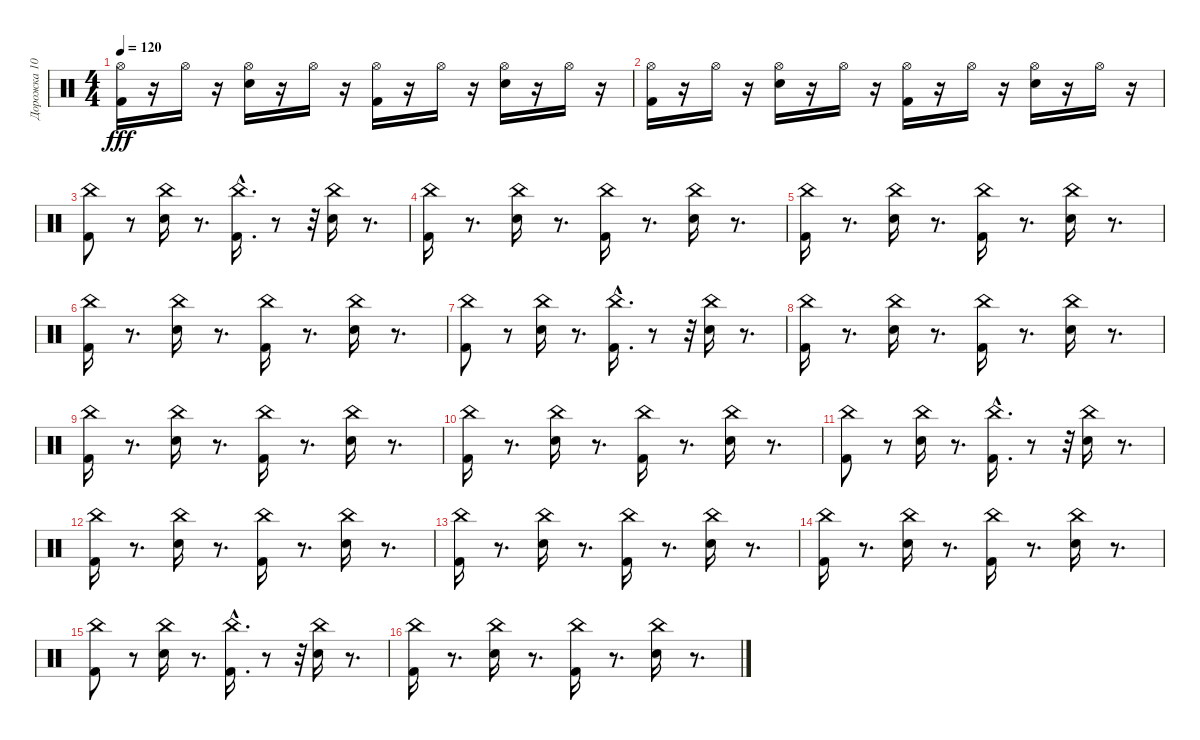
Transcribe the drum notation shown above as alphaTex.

\track ("Дорожка 10" "Дорожка 10") {instrument percussion}
\staff {score}
\articulation defaults
\ts (4 4)
\tempo 120
\clef neutral
\ks c
("Hi-Hat (open)" "Kick (hit) 2").16{dy fff} r.16 "Hi-Hat (open)".16 r.16 ("Hi-Hat (open)" "Snare (hit) 2").16 r.16 "Hi-Hat (open)".16 r.16 ("Hi-Hat (open)" "Kick (hit) 2").16 r.16 "Hi-Hat (open)".16 r.16 ("Snare (hit) 2" "Hi-Hat (open)").16 r.16 "Hi-Hat (open)".16 r.16 |
("Hi-Hat (open)" "Kick (hit) 2").16 r.16 "Hi-Hat (open)".16 r.16 ("Hi-Hat (open)" "Snare (hit) 2").16 r.16 "Hi-Hat (open)".16 r.16 ("Hi-Hat (open)" "Kick (hit) 2").16 r.16 "Hi-Hat (open)".16 r.16 ("Hi-Hat (open)" "Snare (hit) 2").16 r.16 "Hi-Hat (open)".16 r.16 |
("China (hit)" "Kick (hit) 2").8 r.8 ("China (hit)" "Snare (hit) 2").16 r.8{d} ("China (hit)" "Kick (hit) 2"{hac}).16{d} r.8 r.32 ("China (hit)" "Snare (hit) 2").16 r.8{d} |
("China (hit)" "Kick (hit) 2").16 r.8{d} ("China (hit)" "Snare (hit) 2").16 r.8{d} ("China (hit)" "Kick (hit) 2").16 r.8{d} ("China (hit)" "Snare (hit) 2").16 r.8{d} |
("China (hit)" "Kick (hit) 2").16 r.8{d} ("China (hit)" "Snare (hit) 2").16 r.8{d} ("China (hit)" "Kick (hit) 2").16 r.8{d} ("China (hit)" "Snare (hit) 2").16 r.8{d} |
("China (hit)" "Kick (hit) 2").16 r.8{d} ("China (hit)" "Snare (hit) 2").16 r.8{d} ("Kick (hit) 2" "China (hit)").16 r.8{d} ("China (hit)" "Snare (hit) 2").16 r.8{d} |
("China (hit)" "Kick (hit) 2").8 r.8 ("China (hit)" "Snare (hit) 2").16 r.8{d} ("China (hit)" "Kick (hit) 2"{hac}).16{d} r.8 r.32 ("China (hit)" "Snare (hit) 2").16 r.8{d} |
("China (hit)" "Kick (hit) 2").16 r.8{d} ("China (hit)" "Snare (hit) 2").16 r.8{d} ("China (hit)" "Kick (hit) 2").16 r.8{d} ("China (hit)" "Snare (hit) 2").16 r.8{d} |
("China (hit)" "Kick (hit) 2").16 r.8{d} ("China (hit)" "Snare (hit) 2").16 r.8{d} ("China (hit)" "Kick (hit) 2").16 r.8{d} ("China (hit)" "Snare (hit) 2").16 r.8{d} |
("China (hit)" "Kick (hit) 2").16 r.8{d} ("China (hit)" "Snare (hit) 2").16 r.8{d} ("Kick (hit) 2" "China (hit)").16 r.8{d} ("China (hit)" "Snare (hit) 2").16 r.8{d} |
("China (hit)" "Kick (hit) 2").8 r.8 ("China (hit)" "Snare (hit) 2").16 r.8{d} ("China (hit)" "Kick (hit) 2"{hac}).16{d} r.8 r.32 ("China (hit)" "Snare (hit) 2").16 r.8{d} |
("China (hit)" "Kick (hit) 2").16 r.8{d} ("China (hit)" "Snare (hit) 2").16 r.8{d} ("China (hit)" "Kick (hit) 2").16 r.8{d} ("China (hit)" "Snare (hit) 2").16 r.8{d} |
("China (hit)" "Kick (hit) 2").16 r.8{d} ("China (hit)" "Snare (hit) 2").16 r.8{d} ("China (hit)" "Kick (hit) 2").16 r.8{d} ("China (hit)" "Snare (hit) 2").16 r.8{d} |
("China (hit)" "Kick (hit) 2").16 r.8{d} ("China (hit)" "Snare (hit) 2").16 r.8{d} ("Kick (hit) 2" "China (hit)").16 r.8{d} ("China (hit)" "Snare (hit) 2").16 r.8{d} |
("China (hit)" "Kick (hit) 2").8 r.8 ("China (hit)" "Snare (hit) 2").16 r.8{d} ("China (hit)" "Kick (hit) 2"{hac}).16{d} r.8 r.32 ("China (hit)" "Snare (hit) 2").16 r.8{d} |
("China (hit)" "Kick (hit) 2").16 r.8{d} ("China (hit)" "Snare (hit) 2").16 r.8{d} ("China (hit)" "Kick (hit) 2").16 r.8{d} ("China (hit)" "Snare (hit) 2").16 r.8{d}
